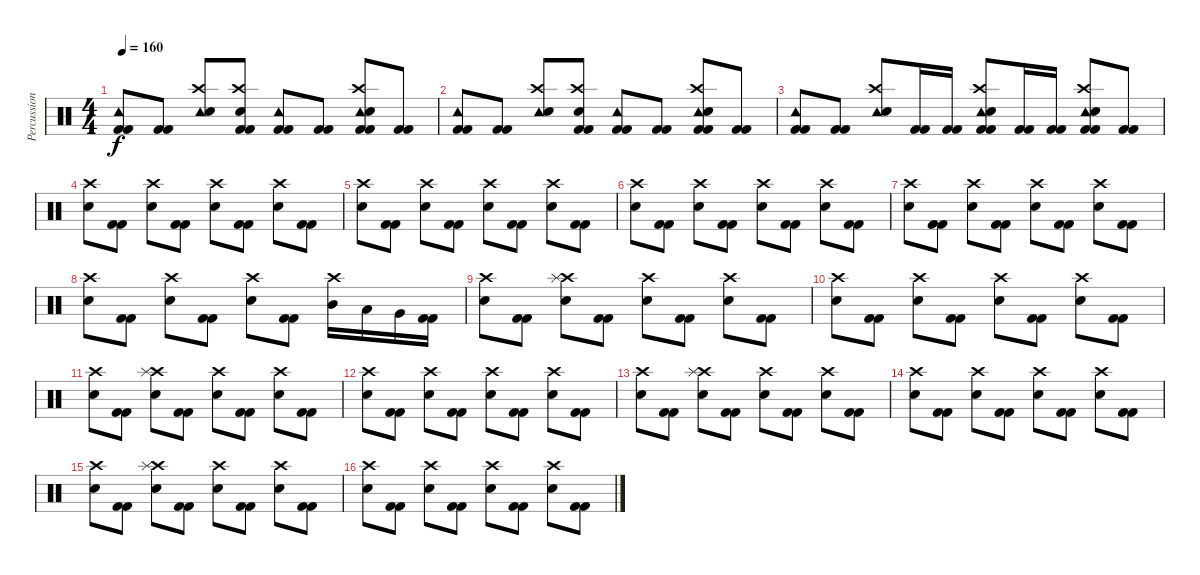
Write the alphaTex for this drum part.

\track ("Percussion" "Percussion") {instrument percussion}
\staff {score}
\articulation defaults
\ts (4 4)
\tempo 160
\clef neutral
\ks c
("Tambourine (hit)" "Kick (hit) 2" "Kick (hit) 2").8{dy f} ("Kick (hit) 2" "Kick (hit) 2").8 ("Tambourine (hit)" "Crash high (hit)" "Electric Snare (hit)").8 ("Crash high (hit)" "Electric Snare (hit)" "Kick (hit) 2" "Kick (hit) 2").8 ("Tambourine (hit)" "Kick (hit) 2" "Kick (hit) 2").8 ("Kick (hit) 2" "Kick (hit) 2").8 ("Tambourine (hit)" "Crash high (hit)" "Electric Snare (hit)" "Kick (hit) 2" "Kick (hit) 2").8 ("Kick (hit) 2" "Kick (hit) 2").8 |
("Tambourine (hit)" "Kick (hit) 2" "Kick (hit) 2").8 ("Kick (hit) 2" "Kick (hit) 2").8 ("Tambourine (hit)" "Crash high (hit)" "Electric Snare (hit)").8 ("Crash high (hit)" "Electric Snare (hit)" "Kick (hit) 2" "Kick (hit) 2").8 ("Tambourine (hit)" "Kick (hit) 2" "Kick (hit) 2").8 ("Kick (hit) 2" "Kick (hit) 2").8 ("Tambourine (hit)" "Crash high (hit)" "Electric Snare (hit)" "Kick (hit) 2" "Kick (hit) 2").8 ("Kick (hit) 2" "Kick (hit) 2").8 |
("Tambourine (hit)" "Kick (hit) 2" "Kick (hit) 2").8 ("Kick (hit) 2" "Kick (hit) 2").8 ("Tambourine (hit)" "Crash high (hit)" "Electric Snare (hit)").8 ("Kick (hit) 2" "Kick (hit) 2").16 ("Kick (hit) 2" "Kick (hit) 2").16 ("Tambourine (hit)" "Crash high (hit)" "Electric Snare (hit)" "Kick (hit) 2" "Kick (hit) 2").8 ("Kick (hit) 2" "Kick (hit) 2").16 ("Kick (hit) 2" "Kick (hit) 2").16 ("Tambourine (hit)" "Crash high (hit)" "Electric Snare (hit)" "Kick (hit) 2" "Kick (hit) 2").8 ("Kick (hit) 2" "Kick (hit) 2").8 |
("Crash high (hit)" "Electric Snare (hit)").8 ("Kick (hit) 2" "Kick (hit) 2").8 ("Crash high (hit)" "Electric Snare (hit)").8 ("Kick (hit) 2" "Kick (hit) 2").8 ("Crash high (hit)" "Electric Snare (hit)").8 ("Kick (hit) 2" "Kick (hit) 2").8 ("Crash high (hit)" "Electric Snare (hit)").8 ("Kick (hit) 2" "Kick (hit) 2").8 |
("Crash high (hit)" "Electric Snare (hit)").8 ("Kick (hit) 2" "Kick (hit) 2").8 ("Crash high (hit)" "Electric Snare (hit)").8 ("Kick (hit) 2" "Kick (hit) 2").8 ("Crash high (hit)" "Electric Snare (hit)").8 ("Kick (hit) 2" "Kick (hit) 2").8 ("Crash high (hit)" "Electric Snare (hit)").8 ("Kick (hit) 2" "Kick (hit) 2").8 |
("Crash high (hit)" "Electric Snare (hit)").8 ("Kick (hit) 2" "Kick (hit) 2").8 ("Crash high (hit)" "Electric Snare (hit)").8 ("Kick (hit) 2" "Kick (hit) 2").8 ("Crash high (hit)" "Electric Snare (hit)").8 ("Kick (hit) 2" "Kick (hit) 2").8 ("Crash high (hit)" "Electric Snare (hit)").8 ("Kick (hit) 2" "Kick (hit) 2").8 |
("Crash high (hit)" "Electric Snare (hit)").8 ("Kick (hit) 2" "Kick (hit) 2").8 ("Crash high (hit)" "Electric Snare (hit)").8 ("Kick (hit) 2" "Kick (hit) 2").8 ("Crash high (hit)" "Electric Snare (hit)").8 ("Kick (hit) 2" "Kick (hit) 2").8 ("Crash high (hit)" "Electric Snare (hit)").8 ("Kick (hit) 2" "Kick (hit) 2").8 |
("Crash high (hit)" "Electric Snare (hit)").8 ("Kick (hit) 2" "Kick (hit) 2").8 ("Crash high (hit)" "Electric Snare (hit)").8 ("Kick (hit) 2" "Kick (hit) 2").8 ("Crash high (hit)" "Electric Snare (hit)").8 ("Kick (hit) 2" "Kick (hit) 2").8 ("Crash high (hit)" "Mid Tom (hit)").16 "Low Tom (hit)".16 "Very Low Tom (hit)".16 ("Kick (hit) 2" "Kick (hit) 2").16 |
("Crash high (hit)" "Electric Snare (hit)").8 ("Kick (hit) 2" "Kick (hit) 2").8 ("Crash high (hit)" "Electric Snare (hit)" "Splash (hit)").8 ("Kick (hit) 2" "Kick (hit) 2").8 ("Crash high (hit)" "Electric Snare (hit)").8 ("Kick (hit) 2" "Kick (hit) 2").8 ("Crash high (hit)" "Electric Snare (hit)").8 ("Kick (hit) 2" "Kick (hit) 2").8 |
("Crash high (hit)" "Electric Snare (hit)").8 ("Kick (hit) 2" "Kick (hit) 2").8 ("Crash high (hit)" "Electric Snare (hit)").8 ("Kick (hit) 2" "Kick (hit) 2").8 ("Crash high (hit)" "Electric Snare (hit)").8 ("Kick (hit) 2" "Kick (hit) 2").8 ("Crash high (hit)" "Electric Snare (hit)").8 ("Kick (hit) 2" "Kick (hit) 2").8 |
("Crash high (hit)" "Electric Snare (hit)").8 ("Kick (hit) 2" "Kick (hit) 2").8 ("Crash high (hit)" "Electric Snare (hit)" "Splash (hit)").8 ("Kick (hit) 2" "Kick (hit) 2").8 ("Crash high (hit)" "Electric Snare (hit)").8 ("Kick (hit) 2" "Kick (hit) 2").8 ("Crash high (hit)" "Electric Snare (hit)").8 ("Kick (hit) 2" "Kick (hit) 2").8 |
("Crash high (hit)" "Electric Snare (hit)").8 ("Kick (hit) 2" "Kick (hit) 2").8 ("Crash high (hit)" "Electric Snare (hit)").8 ("Kick (hit) 2" "Kick (hit) 2").8 ("Crash high (hit)" "Electric Snare (hit)").8 ("Kick (hit) 2" "Kick (hit) 2").8 ("Crash high (hit)" "Electric Snare (hit)").8 ("Kick (hit) 2" "Kick (hit) 2").8 |
("Crash high (hit)" "Electric Snare (hit)").8 ("Kick (hit) 2" "Kick (hit) 2").8 ("Crash high (hit)" "Electric Snare (hit)" "Splash (hit)").8 ("Kick (hit) 2" "Kick (hit) 2").8 ("Crash high (hit)" "Electric Snare (hit)").8 ("Kick (hit) 2" "Kick (hit) 2").8 ("Crash high (hit)" "Electric Snare (hit)").8 ("Kick (hit) 2" "Kick (hit) 2").8 |
("Crash high (hit)" "Electric Snare (hit)").8 ("Kick (hit) 2" "Kick (hit) 2").8 ("Crash high (hit)" "Electric Snare (hit)").8 ("Kick (hit) 2" "Kick (hit) 2").8 ("Crash high (hit)" "Electric Snare (hit)").8 ("Kick (hit) 2" "Kick (hit) 2").8 ("Crash high (hit)" "Electric Snare (hit)").8 ("Kick (hit) 2" "Kick (hit) 2").8 |
("Crash high (hit)" "Electric Snare (hit)").8 ("Kick (hit) 2" "Kick (hit) 2").8 ("Crash high (hit)" "Electric Snare (hit)" "Splash (hit)").8 ("Kick (hit) 2" "Kick (hit) 2").8 ("Crash high (hit)" "Electric Snare (hit)").8 ("Kick (hit) 2" "Kick (hit) 2").8 ("Crash high (hit)" "Electric Snare (hit)").8 ("Kick (hit) 2" "Kick (hit) 2").8 |
("Crash high (hit)" "Electric Snare (hit)").8 ("Kick (hit) 2" "Kick (hit) 2").8 ("Crash high (hit)" "Electric Snare (hit)").8 ("Kick (hit) 2" "Kick (hit) 2").8 ("Crash high (hit)" "Electric Snare (hit)").8 ("Kick (hit) 2" "Kick (hit) 2").8 ("Crash high (hit)" "Electric Snare (hit)").8 ("Kick (hit) 2" "Kick (hit) 2").8
